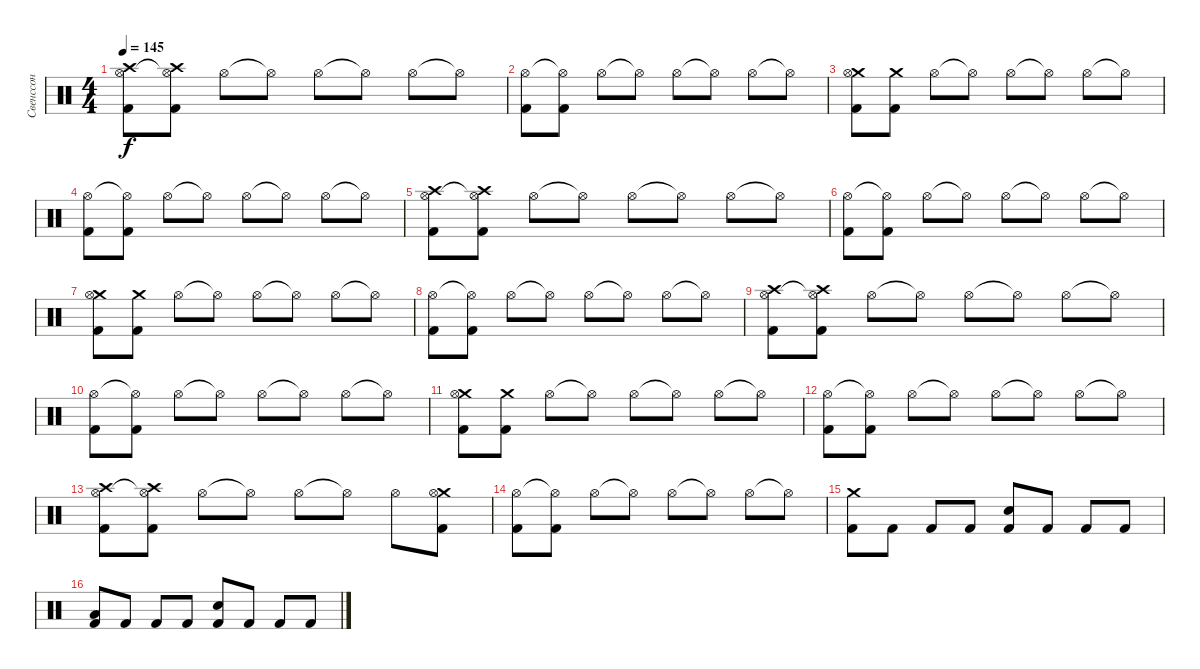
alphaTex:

\track ("Свенссон" "Свенссон") {instrument percussion}
\staff {score}
\articulation defaults
\ts (4 4)
\tempo 145
\clef neutral
\ks c
("Crash high (hit)" "Hi-Hat (open)" "Kick (hit) 2").8{dy f} ("Crash high (hit)" "Hi-Hat (open)"{t} "Kick (hit) 2").8 "Hi-Hat (open)".8 "Hi-Hat (open)"{t}.8 "Hi-Hat (open)".8 "Hi-Hat (open)"{t}.8 "Hi-Hat (open)".8 "Hi-Hat (open)"{t}.8 |
("Hi-Hat (open)" "Kick (hit) 2").8 ("Hi-Hat (open)"{t} "Kick (hit) 2").8 "Hi-Hat (open)".8 "Hi-Hat (open)"{t}.8 "Hi-Hat (open)".8 "Hi-Hat (open)"{t}.8 "Hi-Hat (open)".8 "Hi-Hat (open)"{t}.8 |
("Crash medium (hit)" "Hi-Hat (open)" "Kick (hit) 2").8 ("Crash medium (hit)" "Kick (hit) 2").8 "Hi-Hat (open)".8 "Hi-Hat (open)"{t}.8 "Hi-Hat (open)".8 "Hi-Hat (open)"{t}.8 "Hi-Hat (open)".8 "Hi-Hat (open)"{t}.8 |
("Hi-Hat (open)" "Kick (hit) 2").8 ("Hi-Hat (open)"{t} "Kick (hit) 2").8 "Hi-Hat (open)".8 "Hi-Hat (open)"{t}.8 "Hi-Hat (open)".8 "Hi-Hat (open)"{t}.8 "Hi-Hat (open)".8 "Hi-Hat (open)"{t}.8 |
("Crash high (hit)" "Hi-Hat (open)" "Kick (hit) 2").8 ("Crash high (hit)" "Hi-Hat (open)"{t} "Kick (hit) 2").8 "Hi-Hat (open)".8 "Hi-Hat (open)"{t}.8 "Hi-Hat (open)".8 "Hi-Hat (open)"{t}.8 "Hi-Hat (open)".8 "Hi-Hat (open)"{t}.8 |
("Hi-Hat (open)" "Kick (hit) 2").8 ("Hi-Hat (open)"{t} "Kick (hit) 2").8 "Hi-Hat (open)".8 "Hi-Hat (open)"{t}.8 "Hi-Hat (open)".8 "Hi-Hat (open)"{t}.8 "Hi-Hat (open)".8 "Hi-Hat (open)"{t}.8 |
("Crash medium (hit)" "Hi-Hat (open)" "Kick (hit) 2").8 ("Crash medium (hit)" "Kick (hit) 2").8 "Hi-Hat (open)".8 "Hi-Hat (open)"{t}.8 "Hi-Hat (open)".8 "Hi-Hat (open)"{t}.8 "Hi-Hat (open)".8 "Hi-Hat (open)"{t}.8 |
("Hi-Hat (open)" "Kick (hit) 2").8 ("Hi-Hat (open)"{t} "Kick (hit) 2").8 "Hi-Hat (open)".8 "Hi-Hat (open)"{t}.8 "Hi-Hat (open)".8 "Hi-Hat (open)"{t}.8 "Hi-Hat (open)".8 "Hi-Hat (open)"{t}.8 |
("Crash high (hit)" "Hi-Hat (open)" "Kick (hit) 2").8 ("Crash high (hit)" "Hi-Hat (open)"{t} "Kick (hit) 2").8 "Hi-Hat (open)".8 "Hi-Hat (open)"{t}.8 "Hi-Hat (open)".8 "Hi-Hat (open)"{t}.8 "Hi-Hat (open)".8 "Hi-Hat (open)"{t}.8 |
("Hi-Hat (open)" "Kick (hit) 2").8 ("Hi-Hat (open)"{t} "Kick (hit) 2").8 "Hi-Hat (open)".8 "Hi-Hat (open)"{t}.8 "Hi-Hat (open)".8 "Hi-Hat (open)"{t}.8 "Hi-Hat (open)".8 "Hi-Hat (open)"{t}.8 |
("Crash medium (hit)" "Hi-Hat (open)" "Kick (hit) 2").8 ("Crash medium (hit)" "Kick (hit) 2").8 "Hi-Hat (open)".8 "Hi-Hat (open)"{t}.8 "Hi-Hat (open)".8 "Hi-Hat (open)"{t}.8 "Hi-Hat (open)".8 "Hi-Hat (open)"{t}.8 |
("Hi-Hat (open)" "Kick (hit) 2").8 ("Hi-Hat (open)"{t} "Kick (hit) 2").8 "Hi-Hat (open)".8 "Hi-Hat (open)"{t}.8 "Hi-Hat (open)".8 "Hi-Hat (open)"{t}.8 "Hi-Hat (open)".8 "Hi-Hat (open)"{t}.8 |
("Crash high (hit)" "Hi-Hat (open)" "Kick (hit) 2").8 ("Crash high (hit)" "Hi-Hat (open)"{t} "Kick (hit) 2").8 "Hi-Hat (open)".8 "Hi-Hat (open)"{t}.8 "Hi-Hat (open)".8 "Hi-Hat (open)"{t}.8 "Hi-Hat (open)".8 ("Crash medium (hit)" "Hi-Hat (open)" "Kick (hit) 2").8 |
("Hi-Hat (open)" "Kick (hit) 2").8 ("Hi-Hat (open)"{t} "Kick (hit) 2").8 "Hi-Hat (open)".8 "Hi-Hat (open)"{t}.8 "Hi-Hat (open)".8 "Hi-Hat (open)"{t}.8 "Hi-Hat (open)".8 "Hi-Hat (open)"{t}.8 |
("Crash medium (hit)" "Kick (hit) 2").8 "Kick (hit) 2".8 "Kick (hit) 2".8 "Kick (hit) 2".8 ("Snare (hit) 2" "Kick (hit) 2").8 "Kick (hit) 2".8 "Kick (hit) 2".8 "Kick (hit) 2".8 |
("Low Floor Tom (hit)" "Kick (hit) 2").8 "Kick (hit) 2".8 "Kick (hit) 2".8 "Kick (hit) 2".8 ("Snare (hit) 2" "Kick (hit) 2").8 "Kick (hit) 2".8 "Kick (hit) 2".8 "Kick (hit) 2".8
